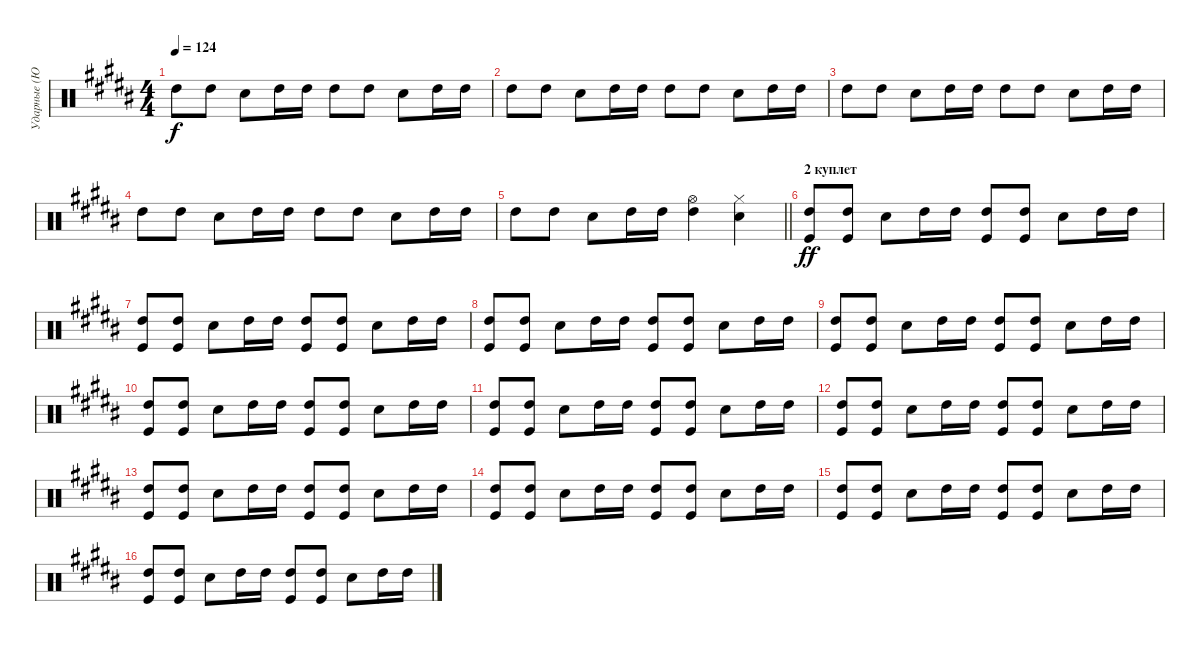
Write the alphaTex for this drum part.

\track ("Ударные (Ю.Борзов)" "Ударные (Ю") {instrument percussion}
\staff {score}
\articulation defaults
\ts (4 4)
\tempo 124
\clef neutral
\ks g#minor "High Tom (hit)".8{dy f} "High Tom (hit)".8 "Snare (hit) 2".8 "High Tom (hit)".16 "High Tom (hit)".16 "High Tom (hit)".8 "High Tom (hit)".8 "Snare (hit) 2".8 "High Tom (hit)".16 "High Tom (hit)".16
|
"High Tom (hit)".8 "High Tom (hit)".8 "Snare (hit) 2".8 "High Tom (hit)".16 "High Tom (hit)".16 "High Tom (hit)".8 "High Tom (hit)".8 "Snare (hit) 2".8 "High Tom (hit)".16 "High Tom (hit)".16 |
"High Tom (hit)".8 "High Tom (hit)".8 "Snare (hit) 2".8 "High Tom (hit)".16 "High Tom (hit)".16 "High Tom (hit)".8 "High Tom (hit)".8 "Snare (hit) 2".8 "High Tom (hit)".16 "High Tom (hit)".16 |
"High Tom (hit)".8 "High Tom (hit)".8 "Snare (hit) 2".8 "High Tom (hit)".16 "High Tom (hit)".16 "High Tom (hit)".8 "High Tom (hit)".8 "Snare (hit) 2".8 "High Tom (hit)".16 "High Tom (hit)".16 |
\barLineRight lightlight "High Tom (hit)".8 "High Tom (hit)".8 "Snare (hit) 2".8 "High Tom (hit)".16 "High Tom (hit)".16
("Hi-Hat (open)" "High Tom (hit)").4 ("Hi-Hat (closed)" "Snare (hit) 2").4 |
\section ("" "2 куплет")
("High Tom (hit)" "Kick (hit)").8{dy ff} ("High Tom (hit)" "Kick (hit)").8 "Snare (hit) 2".8 "High Tom (hit)".16 "High Tom (hit)".16 ("High Tom (hit)" "Kick (hit)").8 ("High Tom (hit)" "Kick (hit)").8 "Snare (hit) 2".8 "High Tom (hit)".16 "High Tom (hit)".16 |
("High Tom (hit)" "Kick (hit)").8 ("High Tom (hit)" "Kick (hit)").8 "Snare (hit) 2".8 "High Tom (hit)".16 "High Tom (hit)".16 ("High Tom (hit)" "Kick (hit)").8 ("High Tom (hit)" "Kick (hit)").8 "Snare (hit) 2".8 "High Tom (hit)".16 "High Tom (hit)".16 |
("High Tom (hit)" "Kick (hit)").8 ("High Tom (hit)" "Kick (hit)").8 "Snare (hit) 2".8 "High Tom (hit)".16 "High Tom (hit)".16 ("High Tom (hit)" "Kick (hit)").8 ("High Tom (hit)" "Kick (hit)").8 "Snare (hit) 2".8 "High Tom (hit)".16 "High Tom (hit)".16 |
("High Tom (hit)" "Kick (hit)").8 ("High Tom (hit)" "Kick (hit)").8 "Snare (hit) 2".8 "High Tom (hit)".16 "High Tom (hit)".16 ("High Tom (hit)" "Kick (hit)").8 ("High Tom (hit)" "Kick (hit)").8 "Snare (hit) 2".8 "High Tom (hit)".16 "High Tom (hit)".16 |
("High Tom (hit)" "Kick (hit)").8 ("High Tom (hit)" "Kick (hit)").8 "Snare (hit) 2".8 "High Tom (hit)".16 "High Tom (hit)".16 ("High Tom (hit)" "Kick (hit)").8 ("High Tom (hit)" "Kick (hit)").8 "Snare (hit) 2".8 "High Tom (hit)".16 "High Tom (hit)".16 |
("High Tom (hit)" "Kick (hit)").8 ("High Tom (hit)" "Kick (hit)").8 "Snare (hit) 2".8 "High Tom (hit)".16 "High Tom (hit)".16 ("High Tom (hit)" "Kick (hit)").8 ("High Tom (hit)" "Kick (hit)").8 "Snare (hit) 2".8 "High Tom (hit)".16 "High Tom (hit)".16 |
("High Tom (hit)" "Kick (hit)").8 ("High Tom (hit)" "Kick (hit)").8 "Snare (hit) 2".8 "High Tom (hit)".16 "High Tom (hit)".16 ("High Tom (hit)" "Kick (hit)").8 ("High Tom (hit)" "Kick (hit)").8 "Snare (hit) 2".8 "High Tom (hit)".16 "High Tom (hit)".16 |
("High Tom (hit)" "Kick (hit)").8 ("High Tom (hit)" "Kick (hit)").8 "Snare (hit) 2".8 "High Tom (hit)".16 "High Tom (hit)".16 ("High Tom (hit)" "Kick (hit)").8 ("High Tom (hit)" "Kick (hit)").8 "Snare (hit) 2".8 "High Tom (hit)".16 "High Tom (hit)".16 |
("High Tom (hit)" "Kick (hit)").8 ("High Tom (hit)" "Kick (hit)").8 "Snare (hit) 2".8 "High Tom (hit)".16 "High Tom (hit)".16 ("High Tom (hit)" "Kick (hit)").8 ("High Tom (hit)" "Kick (hit)").8 "Snare (hit) 2".8 "High Tom (hit)".16 "High Tom (hit)".16 |
("High Tom (hit)" "Kick (hit)").8 ("High Tom (hit)" "Kick (hit)").8 "Snare (hit) 2".8 "High Tom (hit)".16 "High Tom (hit)".16 ("High Tom (hit)" "Kick (hit)").8 ("High Tom (hit)" "Kick (hit)").8 "Snare (hit) 2".8 "High Tom (hit)".16 "High Tom (hit)".16 |
("High Tom (hit)" "Kick (hit)").8 ("High Tom (hit)" "Kick (hit)").8 "Snare (hit) 2".8 "High Tom (hit)".16 "High Tom (hit)".16 ("High Tom (hit)" "Kick (hit)").8 ("High Tom (hit)" "Kick (hit)").8 "Snare (hit) 2".8 "High Tom (hit)".16 "High Tom (hit)".16
